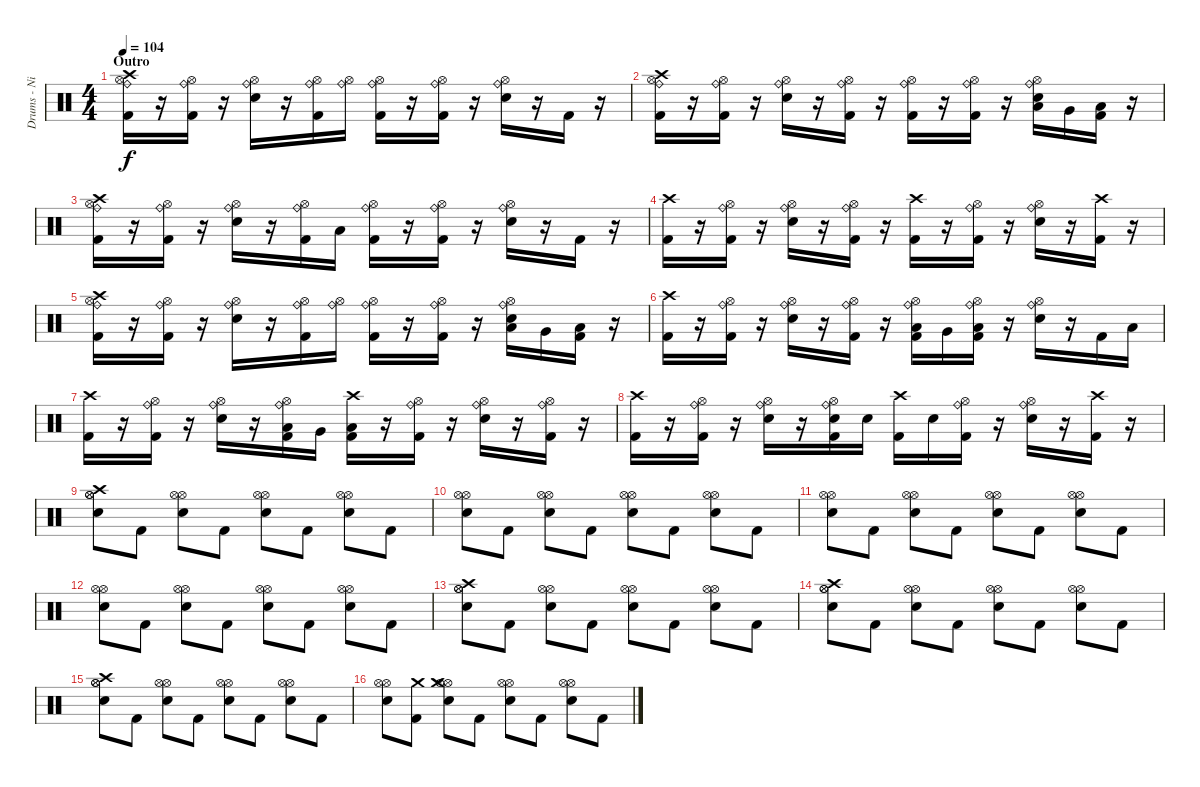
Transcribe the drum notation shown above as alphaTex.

\track ("Drums - Nick Jago" "Drums - Ni") {instrument percussion}
\staff {score}
\articulation defaults
\ts (4 4)
\section ("" "Outro")
\tempo 104
\clef neutral
\ks c
("Ride (bell)" "Crash high (hit)" "Hi-Hat (open)" "Kick (hit) 2").16{dy f} r.16 ("Ride (bell)" "Hi-Hat (open)" "Kick (hit) 2").16 r.16 ("Ride (bell)" "Hi-Hat (open)" "Electric Snare (hit)").16 r.16 ("Ride (bell)" "Hi-Hat (open)" "Kick (hit) 2").16 ("Ride (bell)" "Hi-Hat (open)").16 ("Ride (bell)" "Hi-Hat (open)" "Kick (hit) 2").16 r.16 ("Ride (bell)" "Hi-Hat (open)" "Kick (hit) 2").16 r.16 ("Ride (bell)" "Hi-Hat (open)" "Electric Snare (hit)").16 r.16 "Kick (hit) 2".16 r.16 |
("Ride (bell)" "Crash high (hit)" "Hi-Hat (open)" "Kick (hit) 2").16 r.16 ("Ride (bell)" "Hi-Hat (open)" "Kick (hit) 2").16 r.16 ("Ride (bell)" "Hi-Hat (open)" "Electric Snare (hit)").16 r.16 ("Ride (bell)" "Hi-Hat (open)" "Kick (hit) 2").16 r.16 ("Ride (bell)" "Hi-Hat (open)" "Kick (hit) 2").16 r.16 ("Ride (bell)" "Hi-Hat (open)" "Kick (hit) 2").16 r.16 ("Ride (bell)" "Hi-Hat (open)" "Low Tom (hit)" "Electric Snare (hit)").16 "Very Low Tom (hit)".16 ("Low Floor Tom (hit)" "Kick (hit) 2").16 r.16 |
("Ride (bell)" "Crash high (hit)" "Hi-Hat (open)" "Kick (hit) 2").16 r.16 ("Ride (bell)" "Hi-Hat (open)" "Kick (hit) 2").16 r.16 ("Ride (bell)" "Hi-Hat (open)" "Electric Snare (hit)").16 r.16 ("Ride (bell)" "Hi-Hat (open)" "Kick (hit) 2").16 "Low Tom (hit)".16 ("Ride (bell)" "Hi-Hat (open)" "Kick (hit) 2").16 r.16 ("Ride (bell)" "Hi-Hat (open)" "Kick (hit) 2").16 r.16 ("Ride (bell)" "Hi-Hat (open)" "Electric Snare (hit)").16 r.16 "Kick (hit) 2".16 r.16 |
("Crash high (hit)" "Kick (hit) 2").16 r.16 ("Ride (bell)" "Hi-Hat (open)" "Kick (hit) 2").16 r.16 ("Ride (bell)" "Hi-Hat (open)" "Electric Snare (hit)").16 r.16 ("Ride (bell)" "Hi-Hat (open)" "Kick (hit) 2").16 r.16 ("Crash high (hit)" "Kick (hit) 2").16 r.16 ("Ride (bell)" "Hi-Hat (open)" "Kick (hit) 2").16 r.16 ("Ride (bell)" "Hi-Hat (open)" "Electric Snare (hit)").16 r.16 ("Crash high (hit)" "Kick (hit) 2").16 r.16 |
("Ride (bell)" "Crash high (hit)" "Hi-Hat (open)" "Kick (hit) 2").16 r.16 ("Ride (bell)" "Hi-Hat (open)" "Kick (hit) 2").16 r.16 ("Ride (bell)" "Hi-Hat (open)" "Electric Snare (hit)").16 r.16 ("Ride (bell)" "Hi-Hat (open)" "Kick (hit) 2").16 ("Ride (bell)" "Hi-Hat (open)").16 ("Ride (bell)" "Hi-Hat (open)" "Kick (hit) 2").16 r.16 ("Ride (bell)" "Hi-Hat (open)" "Kick (hit) 2").16 r.16 ("Ride (bell)" "Hi-Hat (open)" "Low Tom (hit)" "Electric Snare (hit)").16 "Very Low Tom (hit)".16 ("Low Floor Tom (hit)" "Kick (hit) 2").16 r.16 |
("Crash high (hit)" "Kick (hit) 2").16 r.16 ("Ride (bell)" "Hi-Hat (open)" "Kick (hit) 2").16 r.16 ("Ride (bell)" "Hi-Hat (open)" "Electric Snare (hit)").16 r.16 ("Ride (bell)" "Hi-Hat (open)" "Kick (hit) 2").16 r.16 ("Ride (bell)" "Hi-Hat (open)" "Low Tom (hit)" "Kick (hit) 2").16 "Very Low Tom (hit)".16 ("Ride (bell)" "Hi-Hat (open)" "Low Floor Tom (hit)" "Kick (hit) 2").16 r.16 ("Ride (bell)" "Hi-Hat (open)" "Electric Snare (hit)").16 r.16 "Kick (hit) 2".16 "Low Tom (hit)".16 |
("Crash high (hit)" "Kick (hit) 2").16 r.16 ("Ride (bell)" "Hi-Hat (open)" "Kick (hit) 2").16 r.16 ("Ride (bell)" "Hi-Hat (open)" "Electric Snare (hit)").16 r.16 ("Ride (bell)" "Hi-Hat (open)" "Low Tom (hit)" "Kick (hit) 2").16 "Very Low Tom (hit)".16 ("Crash high (hit)" "Low Floor Tom (hit)" "Kick (hit) 2").16 r.16 ("Ride (bell)" "Hi-Hat (open)" "Kick (hit) 2").16 r.16 ("Ride (bell)" "Hi-Hat (open)" "Electric Snare (hit)").16 r.16 ("Ride (bell)" "Hi-Hat (open)" "Kick (hit) 2").16 r.16 |
("Crash high (hit)" "Kick (hit) 2").16 r.16 ("Ride (bell)" "Hi-Hat (open)" "Kick (hit) 2").16 r.16 ("Ride (bell)" "Hi-Hat (open)" "Electric Snare (hit)").16 r.16 ("Ride (bell)" "Hi-Hat (open)" "Electric Snare (hit)" "Kick (hit) 2").16 "Electric Snare (hit)".16 ("Crash high (hit)" "Kick (hit) 2").16 "Electric Snare (hit)".16 ("Ride (bell)" "Hi-Hat (open)" "Kick (hit) 2").16 r.16 ("Ride (bell)" "Hi-Hat (open)" "Electric Snare (hit)").16 r.16 ("Crash high (hit)" "Kick (hit) 2").16 r.16 |
("Hi-Hat (open)" "Hi-Hat (open)" "Crash high (hit)" "Electric Snare (hit)").8 "Kick (hit) 2".8 ("Hi-Hat (open)" "Hi-Hat (open)" "Electric Snare (hit)").8 "Kick (hit) 2".8 ("Hi-Hat (open)" "Hi-Hat (open)" "Electric Snare (hit)").8 "Kick (hit) 2".8 ("Hi-Hat (open)" "Hi-Hat (open)" "Electric Snare (hit)").8 "Kick (hit) 2".8 |
("Hi-Hat (open)" "Hi-Hat (open)" "Electric Snare (hit)").8 "Kick (hit) 2".8 ("Hi-Hat (open)" "Hi-Hat (open)" "Electric Snare (hit)").8 "Kick (hit) 2".8 ("Hi-Hat (open)" "Hi-Hat (open)" "Electric Snare (hit)").8 "Kick (hit) 2".8 ("Hi-Hat (open)" "Hi-Hat (open)" "Electric Snare (hit)").8 "Kick (hit) 2".8 |
("Hi-Hat (open)" "Hi-Hat (open)" "Electric Snare (hit)").8 "Kick (hit) 2".8 ("Hi-Hat (open)" "Hi-Hat (open)" "Electric Snare (hit)").8 "Kick (hit) 2".8 ("Hi-Hat (open)" "Hi-Hat (open)" "Electric Snare (hit)").8 "Kick (hit) 2".8 ("Hi-Hat (open)" "Hi-Hat (open)" "Electric Snare (hit)").8 "Kick (hit) 2".8 |
("Hi-Hat (open)" "Hi-Hat (open)" "Electric Snare (hit)").8 "Kick (hit) 2".8 ("Hi-Hat (open)" "Hi-Hat (open)" "Electric Snare (hit)").8 "Kick (hit) 2".8 ("Hi-Hat (open)" "Hi-Hat (open)" "Electric Snare (hit)").8 "Kick (hit) 2".8 ("Hi-Hat (open)" "Hi-Hat (open)" "Electric Snare (hit)").8 "Kick (hit) 2".8 |
("Hi-Hat (open)" "Hi-Hat (open)" "Crash high (hit)" "Electric Snare (hit)").8 "Kick (hit) 2".8 ("Hi-Hat (open)" "Hi-Hat (open)" "Electric Snare (hit)").8 "Kick (hit) 2".8 ("Hi-Hat (open)" "Hi-Hat (open)" "Electric Snare (hit)").8 "Kick (hit) 2".8 ("Hi-Hat (open)" "Hi-Hat (open)" "Electric Snare (hit)").8 "Kick (hit) 2".8 |
("Hi-Hat (open)" "Hi-Hat (open)" "Crash high (hit)" "Electric Snare (hit)").8 "Kick (hit) 2".8 ("Hi-Hat (open)" "Hi-Hat (open)" "Electric Snare (hit)").8 "Kick (hit) 2".8 ("Hi-Hat (open)" "Hi-Hat (open)" "Electric Snare (hit)").8 "Kick (hit) 2".8 ("Hi-Hat (open)" "Hi-Hat (open)" "Electric Snare (hit)").8 "Kick (hit) 2".8 |
("Hi-Hat (open)" "Hi-Hat (open)" "Crash high (hit)" "Electric Snare (hit)").8 "Kick (hit) 2".8 ("Hi-Hat (open)" "Hi-Hat (open)" "Electric Snare (hit)").8 "Kick (hit) 2".8 ("Hi-Hat (open)" "Hi-Hat (open)" "Electric Snare (hit)").8 "Kick (hit) 2".8 ("Hi-Hat (open)" "Hi-Hat (open)" "Electric Snare (hit)").8 "Kick (hit) 2".8 |
("Hi-Hat (open)" "Hi-Hat (open)" "Electric Snare (hit)").8 ("Crash medium (hit)" "Kick (hit) 2").8 ("Hi-Hat (open)" "Hi-Hat (open)" "Crash medium (hit)" "Electric Snare (hit)").8 "Kick (hit) 2".8 ("Hi-Hat (open)" "Hi-Hat (open)" "Electric Snare (hit)").8 "Kick (hit) 2".8 ("Hi-Hat (open)" "Hi-Hat (open)" "Electric Snare (hit)").8 "Kick (hit) 2".8
